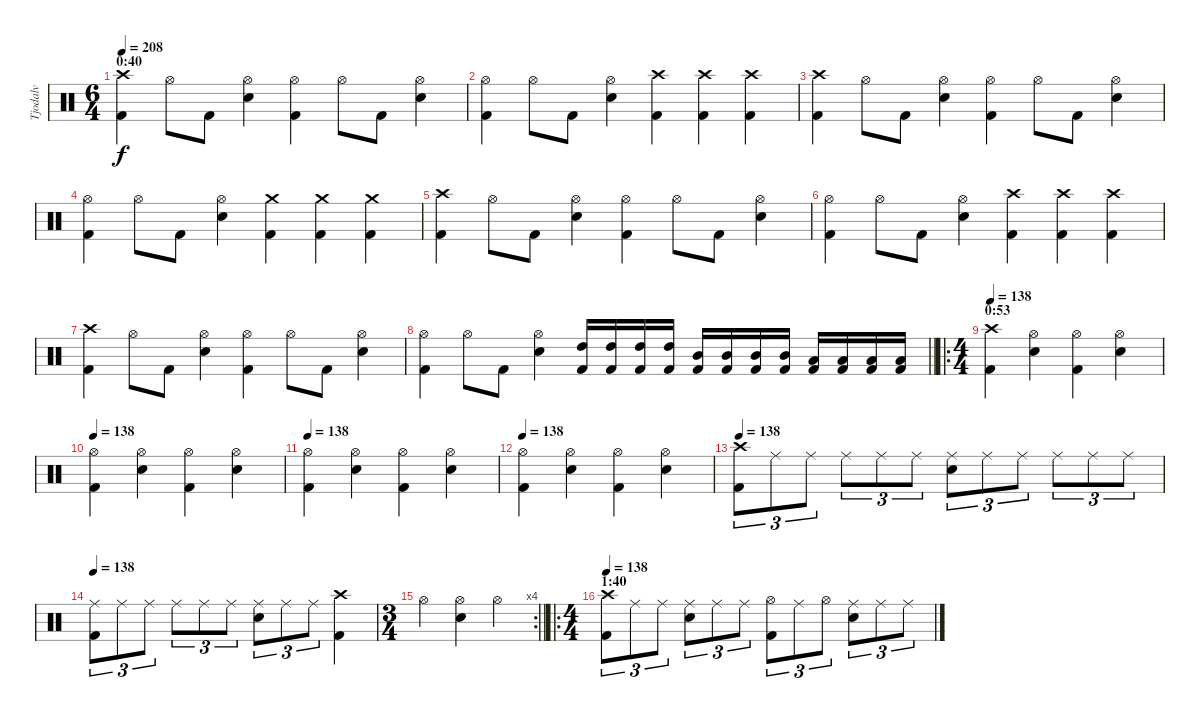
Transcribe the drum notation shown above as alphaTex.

\track ("Tjodalv" "Tjodalv") {instrument percussion}
\staff {score}
\articulation defaults
\ts (6 4)
\section ("" "0:40")
\tempo 208
\clef neutral
\ks c
("Kick (hit) 2" "Crash high (hit)").4{dy f} "Hi-Hat (open)".8 "Kick (hit) 2".8 ("Snare (hit) 2" "Hi-Hat (open)").4 ("Kick (hit) 2" "Hi-Hat (open)").4 "Hi-Hat (open)".8 "Kick (hit) 2".8 ("Snare (hit) 2" "Hi-Hat (open)").4 |
("Kick (hit) 2" "Hi-Hat (open)").4 "Hi-Hat (open)".8 "Kick (hit) 2".8 ("Snare (hit) 2" "Hi-Hat (open)").4 ("Kick (hit) 2" "Crash high (hit)").4 ("Kick (hit) 2" "Crash high (hit)").4 ("Kick (hit) 2" "Crash high (hit)").4 |
("Kick (hit) 2" "Crash high (hit)").4 "Hi-Hat (open)".8 "Kick (hit) 2".8 ("Snare (hit) 2" "Hi-Hat (open)").4 ("Kick (hit) 2" "Hi-Hat (open)").4 "Hi-Hat (open)".8 "Kick (hit) 2".8 ("Snare (hit) 2" "Hi-Hat (open)").4 |
("Kick (hit) 2" "Hi-Hat (open)").4 "Hi-Hat (open)".8 "Kick (hit) 2".8 ("Snare (hit) 2" "Hi-Hat (open)").4 ("Kick (hit) 2" "Crash medium (hit)").4 ("Kick (hit) 2" "Crash medium (hit)").4 ("Kick (hit) 2" "Crash medium (hit)").4 |
("Kick (hit) 2" "Crash high (hit)").4 "Hi-Hat (open)".8 "Kick (hit) 2".8 ("Snare (hit) 2" "Hi-Hat (open)").4 ("Kick (hit) 2" "Hi-Hat (open)").4 "Hi-Hat (open)".8 "Kick (hit) 2".8 ("Snare (hit) 2" "Hi-Hat (open)").4 |
("Kick (hit) 2" "Hi-Hat (open)").4 "Hi-Hat (open)".8 "Kick (hit) 2".8 ("Snare (hit) 2" "Hi-Hat (open)").4 ("Kick (hit) 2" "Crash high (hit)").4 ("Kick (hit) 2" "Crash high (hit)").4 ("Kick (hit) 2" "Crash high (hit)").4 |
("Kick (hit) 2" "Crash high (hit)").4 "Hi-Hat (open)".8 "Kick (hit) 2".8 ("Snare (hit) 2" "Hi-Hat (open)").4 ("Kick (hit) 2" "Hi-Hat (open)").4 "Hi-Hat (open)".8 "Kick (hit) 2".8 ("Snare (hit) 2" "Hi-Hat (open)").4 |
\barLineRight lightlight
("Kick (hit) 2" "Hi-Hat (open)").4 "Hi-Hat (open)".8 "Kick (hit) 2".8 ("Snare (hit) 2" "Hi-Hat (open)").4 ("Kick (hit) 2" "High Tom (hit)").16 ("Kick (hit) 2" "High Tom (hit)").16 ("Kick (hit) 2" "High Tom (hit)").16 ("Kick (hit) 2" "High Tom (hit)").16 ("Kick (hit) 2" "Mid Tom (hit)").16 ("Kick (hit) 2" "Mid Tom (hit)").16 ("Kick (hit) 2" "Mid Tom (hit)").16 ("Kick (hit) 2" "Mid Tom (hit)").16 ("Kick (hit) 2" "Low Tom (hit)").16 ("Kick (hit) 2" "Low Tom (hit)").16 ("Kick (hit) 2" "Low Tom (hit)").16 ("Kick (hit) 2" "Low Tom (hit)").16 |
\ro
\ts (4 4)
\section ("" "0:53")
\tempo 138
("Kick (hit) 2" "Crash high (hit)").4 ("Snare (hit) 2" "Hi-Hat (open)").4 ("Kick (hit) 2" "Hi-Hat (open)").4 ("Snare (hit) 2" "Hi-Hat (open)").4 |
\tempo 138
("Kick (hit) 2" "Hi-Hat (open)").4 ("Snare (hit) 2" "Hi-Hat (open)").4 ("Kick (hit) 2" "Hi-Hat (open)").4 ("Snare (hit) 2" "Hi-Hat (open)").4 |
\tempo 138
("Kick (hit) 2" "Hi-Hat (open)").4 ("Snare (hit) 2" "Hi-Hat (open)").4 ("Kick (hit) 2" "Hi-Hat (open)").4 ("Snare (hit) 2" "Hi-Hat (open)").4 |
\tempo 138
("Kick (hit) 2" "Hi-Hat (open)").4 ("Snare (hit) 2" "Hi-Hat (open)").4 ("Kick (hit) 2" "Hi-Hat (open)").4 ("Snare (hit) 2" "Hi-Hat (open)").4 |
\tempo 138
("Kick (hit) 2" "Crash high (hit)").8{tu (3 2)} "Ride (middle)".8{tu (3 2)} "Ride (middle)".8{tu (3 2)} "Ride (middle)".8{tu (3 2)} "Ride (middle)".8{tu (3 2)} "Ride (middle)".8{tu (3 2)} ("Snare (hit) 2" "Ride (middle)").8{tu (3 2)} "Ride (middle)".8{tu (3 2)} "Ride (middle)".8{tu (3 2)} "Ride (middle)".8{tu (3 2)} "Ride (middle)".8{tu (3 2)} "Ride (middle)".8{tu (3 2)} |
\tempo 138
("Kick (hit) 2" "Ride (middle)").8{tu (3 2)} "Ride (middle)".8{tu (3 2)} "Ride (middle)".8{tu (3 2)} "Ride (middle)".8{tu (3 2)} "Ride (middle)".8{tu (3 2)} "Ride (middle)".8{tu (3 2)} ("Snare (hit) 2" "Ride (middle)").8{tu (3 2)} "Ride (middle)".8{tu (3 2)} "Ride (middle)".8{tu (3 2)} ("Kick (hit) 2" "Crash high (hit)").4 |
\rc 4
\ts (3 4)
\barLineRight lightlight "Hi-Hat (open)".4
("Snare (hit) 2" "Hi-Hat (open)").4 "Hi-Hat (open)".4 |
\ro
\ts (4 4)
\section ("" "1:40")
\tempo 138
("Kick (hit) 2" "Crash high (hit)").8{tu (3 2)} "Ride (middle)".8{tu (3 2)} "Ride (middle)".8{tu (3 2)} ("Snare (hit) 2" "Ride (middle)").8{tu (3 2)} "Ride (middle)".8{tu (3 2)} "Ride (middle)".8{tu (3 2)} ("Kick (hit) 2" "Hi-Hat (open)").8{tu (3 2)} "Ride (middle)".8{tu (3 2)} "Hi-Hat (open)".8{tu (3 2)} ("Snare (hit) 2" "Ride (middle)").8{tu (3 2)} "Ride (middle)".8{tu (3 2)} "Ride (middle)".8{tu (3 2)}
